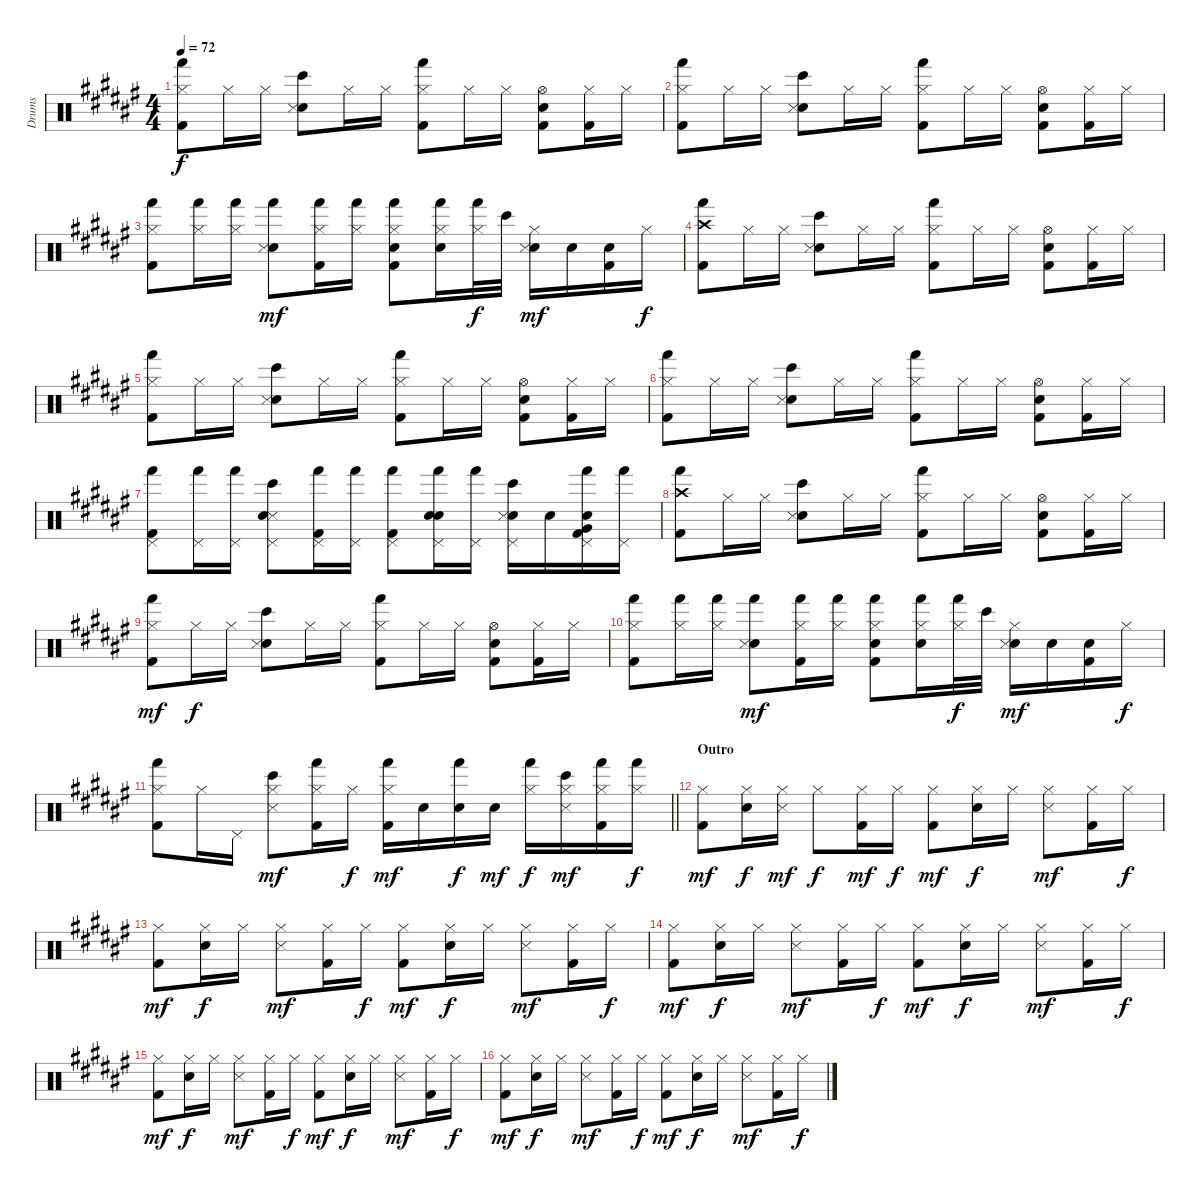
\track ("Drums" "Drums") {instrument percussion}
\staff {score}
\articulation defaults
\ts (4 4)
\tempo 72
\clef neutral
\ks f#
("Hi-Hat (closed)" "Hand (hit)" "Kick (hit) 2").8{dy f} "Hi-Hat (closed)".16 "Hi-Hat (closed)".16 ("Bongo High (hit)" "Snare (hit) 2" "Snare (side stick) 3").8 "Hi-Hat (closed)".16 "Hi-Hat (closed)".16 ("Hi-Hat (closed)" "Hand (hit)" "Kick (hit) 2").8 "Hi-Hat (closed)".16 "Hi-Hat (closed)".16 ("Hi-Hat (open)" "Snare (hit) 2" "Kick (hit) 2").8 ("Hi-Hat (closed)" "Kick (hit) 2").16 "Hi-Hat (closed)".16 |
("Hi-Hat (closed)" "Hand (hit)" "Kick (hit) 2").8 "Hi-Hat (closed)".16 "Hi-Hat (closed)".16 ("Bongo High (hit)" "Snare (hit) 2" "Snare (side stick) 3").8 "Hi-Hat (closed)".16 "Hi-Hat (closed)".16 ("Hi-Hat (closed)" "Hand (hit)" "Kick (hit) 2").8 "Hi-Hat (closed)".16 "Hi-Hat (closed)".16 ("Hi-Hat (open)" "Snare (hit) 2" "Kick (hit) 2").8 ("Hi-Hat (closed)" "Kick (hit) 2").16 "Hi-Hat (closed)".16 |
("Hi-Hat (closed)" "Hand (hit)" "Kick (hit) 2").8 ("Hand (hit)" "Hi-Hat (closed)").16 ("Hand (hit)" "Hi-Hat (closed)").16 ("Hand (hit)" "Snare (hit) 2" "Snare (side stick) 3").8{dy mf} ("Hi-Hat (closed)" "Hand (hit)" "Kick (hit) 2").16 ("Hi-Hat (closed)" "Hand (hit)").16 ("Hand (hit)" "Hi-Hat (closed)" "Snare (hit) 2" "Kick (hit) 2").8 ("Hand (hit)" "Hi-Hat (closed)" "Snare (hit) 2").16 ("Hand (hit)" "Hi-Hat (closed)").32{dy f} "Bongo High (hit)".32 ("Hi-Hat (closed)" "Snare (hit) 2" "Snare (side stick) 3").16{dy mf} "Snare (hit) 2".16 ("Snare (hit) 2" "Kick (hit) 2").16 "Hi-Hat (closed)".16{dy f} |
("Crash high (hit)" "Hand (hit)" "Kick (hit) 2").8 "Hi-Hat (closed)".16 "Hi-Hat (closed)".16 ("Bongo High (hit)" "Snare (hit) 2" "Snare (side stick) 3").8 "Hi-Hat (closed)".16 "Hi-Hat (closed)".16 ("Hi-Hat (closed)" "Hand (hit)" "Kick (hit) 2").8 "Hi-Hat (closed)".16 "Hi-Hat (closed)".16 ("Hi-Hat (open)" "Snare (hit) 2" "Kick (hit) 2").8 ("Hi-Hat (closed)" "Kick (hit) 2").16 "Hi-Hat (closed)".16 |
("Hi-Hat (closed)" "Hand (hit)" "Kick (hit) 2").8 "Hi-Hat (closed)".16 "Hi-Hat (closed)".16 ("Bongo High (hit)" "Snare (hit) 2" "Snare (side stick) 3").8 "Hi-Hat (closed)".16 "Hi-Hat (closed)".16 ("Hi-Hat (closed)" "Hand (hit)" "Kick (hit) 2").8 "Hi-Hat (closed)".16 "Hi-Hat (closed)".16 ("Hi-Hat (open)" "Snare (hit) 2" "Kick (hit) 2").8 ("Hi-Hat (closed)" "Kick (hit) 2").16 "Hi-Hat (closed)".16 |
("Hi-Hat (closed)" "Hand (hit)" "Kick (hit) 2").8 "Hi-Hat (closed)".16 "Hi-Hat (closed)".16 ("Bongo High (hit)" "Snare (hit) 2" "Snare (side stick) 3").8 "Hi-Hat (closed)".16 "Hi-Hat (closed)".16 ("Hi-Hat (closed)" "Hand (hit)" "Kick (hit) 2").8 "Hi-Hat (closed)".16 "Hi-Hat (closed)".16 ("Hi-Hat (open)" "Snare (hit) 2" "Kick (hit) 2").8 ("Hi-Hat (closed)" "Kick (hit) 2").16 "Hi-Hat (closed)".16 |
("Hand (hit)" "Pedal Hi-Hat (hit)" "Kick (hit) 2").8 ("Hand (hit)" "Pedal Hi-Hat (hit)").16 ("Hand (hit)" "Pedal Hi-Hat (hit)").16 ("Snare (side stick) 3" "Pedal Hi-Hat (hit)" "Bongo High (hit)" "Electric Snare (hit)").8 ("Pedal Hi-Hat (hit)" "Kick (hit) 2" "Hand (hit)").16 ("Hand (hit)" "Pedal Hi-Hat (hit)").16 ("Pedal Hi-Hat (hit)" "Kick (hit) 2" "Hand (hit)").8 ("Pedal Hi-Hat (hit)" "Hand (hit)" "Electric Snare (hit)" "Snare (hit) 2").16 ("Hand (hit)" "Pedal Hi-Hat (hit)").16 ("Pedal Hi-Hat (hit)" "Bongo High (hit)" "Electric Snare (hit)" "Snare (side stick) 3").16 "Electric Snare (hit)".16 ("Kick (hit) 2" "Hand (hit)" "Very Low Tom (hit)" "Pedal Hi-Hat (hit)" "Electric Snare (hit)").16 ("Pedal Hi-Hat (hit)" "Hand (hit)").16 |
("Crash high (hit)" "Hand (hit)" "Kick (hit) 2").8 "Hi-Hat (closed)".16 "Hi-Hat (closed)".16 ("Bongo High (hit)" "Snare (hit) 2" "Snare (side stick) 3").8 "Hi-Hat (closed)".16 "Hi-Hat (closed)".16 ("Hi-Hat (closed)" "Hand (hit)" "Kick (hit) 2").8 "Hi-Hat (closed)".16 "Hi-Hat (closed)".16 ("Hi-Hat (open)" "Snare (hit) 2" "Kick (hit) 2").8 ("Hi-Hat (closed)" "Kick (hit) 2").16 "Hi-Hat (closed)".16 |
("Hi-Hat (closed)" "Hand (hit)" "Kick (hit) 2").8{dy mf} "Hi-Hat (closed)".16{dy f} "Hi-Hat (closed)".16 ("Bongo High (hit)" "Snare (hit) 2" "Snare (side stick) 3").8 "Hi-Hat (closed)".16 "Hi-Hat (closed)".16 ("Hi-Hat (closed)" "Hand (hit)" "Kick (hit) 2").8 "Hi-Hat (closed)".16 "Hi-Hat (closed)".16 ("Hi-Hat (open)" "Snare (hit) 2" "Kick (hit) 2").8 ("Hi-Hat (closed)" "Kick (hit) 2").16 "Hi-Hat (closed)".16 |
("Hi-Hat (closed)" "Hand (hit)" "Kick (hit) 2").8 ("Hand (hit)" "Hi-Hat (closed)").16 ("Hand (hit)" "Hi-Hat (closed)").16 ("Hand (hit)" "Snare (hit) 2" "Snare (side stick) 3").8{dy mf} ("Hi-Hat (closed)" "Hand (hit)" "Kick (hit) 2").16 ("Hi-Hat (closed)" "Hand (hit)").16 ("Hand (hit)" "Hi-Hat (closed)" "Snare (hit) 2" "Kick (hit) 2").8 ("Hand (hit)" "Hi-Hat (closed)" "Snare (hit) 2").16 ("Hand (hit)" "Hi-Hat (closed)").32{dy f} "Bongo High (hit)".32 ("Hi-Hat (closed)" "Snare (hit) 2" "Snare (side stick) 3").16{dy mf} "Snare (hit) 2".16 ("Snare (hit) 2" "Kick (hit) 2").16 "Hi-Hat (closed)".16{dy f} |
\barLineRight lightlight
("Hi-Hat (closed)" "Hand (hit)" "Kick (hit) 2").8 "Hi-Hat (closed)".16 "Pedal Hi-Hat (hit)".16 ("Bongo High (hit)" "Hi-Hat (closed)" "Snare (side stick) 3").8{dy mf} ("Hand (hit)" "Hi-Hat (closed)" "Kick (hit) 2").16 "Hi-Hat (closed)".16{dy f} ("Hand (hit)" "Hi-Hat (closed)" "Kick (hit) 2").16{dy mf} "Snare (hit) 2".16 ("Hand (hit)" "Snare (hit) 2").16{dy f} "Snare (hit) 2".16{dy mf} ("Hand (hit)" "Hi-Hat (closed)").16{dy f} ("Bongo High (hit)" "Hi-Hat (closed)" "Snare (side stick) 3").16{dy mf} ("Hand (hit)" "Hi-Hat (closed)" "Kick (hit) 2").16 ("Hand (hit)" "Hi-Hat (closed)").16{dy f} |
\section ("" "Outro")
("Hi-Hat (closed)" "Kick (hit) 2").8{dy mf} ("Hi-Hat (closed)" "Snare (hit) 2").16{dy f} ("Hi-Hat (closed)" "Snare (side stick) 3").16{dy mf} "Hi-Hat (closed)".8{dy f} ("Hi-Hat (closed)" "Kick (hit) 2").16{dy mf} "Hi-Hat (closed)".16{dy f} ("Hi-Hat (closed)" "Kick (hit) 2").8{dy mf} ("Hi-Hat (closed)" "Snare (hit) 2").16{dy f} "Hi-Hat (closed)".16 ("Hi-Hat (closed)" "Snare (side stick) 3").8{dy mf} ("Hi-Hat (closed)" "Kick (hit) 2").16 "Hi-Hat (closed)".16{dy f} |
("Hi-Hat (closed)" "Kick (hit) 2").8{dy mf} ("Hi-Hat (closed)" "Snare (hit) 2").16{dy f} "Hi-Hat (closed)".16 ("Hi-Hat (closed)" "Snare (side stick) 3").8{dy mf} ("Hi-Hat (closed)" "Kick (hit) 2").16 "Hi-Hat (closed)".16{dy f} ("Hi-Hat (closed)" "Kick (hit) 2").8{dy mf} ("Hi-Hat (closed)" "Snare (hit) 2").16{dy f} "Hi-Hat (closed)".16 ("Hi-Hat (closed)" "Snare (side stick) 3").8{dy mf} ("Hi-Hat (closed)" "Kick (hit) 2").16 "Hi-Hat (closed)".16{dy f} |
("Hi-Hat (closed)" "Kick (hit) 2").8{dy mf} ("Hi-Hat (closed)" "Snare (hit) 2").16{dy f} "Hi-Hat (closed)".16 ("Hi-Hat (closed)" "Snare (side stick) 3").8{dy mf} ("Hi-Hat (closed)" "Kick (hit) 2").16 "Hi-Hat (closed)".16{dy f} ("Hi-Hat (closed)" "Kick (hit) 2").8{dy mf} ("Hi-Hat (closed)" "Snare (hit) 2").16{dy f} "Hi-Hat (closed)".16 ("Hi-Hat (closed)" "Snare (side stick) 3").8{dy mf} ("Hi-Hat (closed)" "Kick (hit) 2").16 "Hi-Hat (closed)".16{dy f} |
("Hi-Hat (closed)" "Kick (hit) 2").8{dy mf} ("Hi-Hat (closed)" "Snare (hit) 2").16{dy f} "Hi-Hat (closed)".16 ("Hi-Hat (closed)" "Snare (side stick) 3").8{dy mf} ("Hi-Hat (closed)" "Kick (hit) 2").16 "Hi-Hat (closed)".16{dy f} ("Hi-Hat (closed)" "Kick (hit) 2").8{dy mf} ("Hi-Hat (closed)" "Snare (hit) 2").16{dy f} "Hi-Hat (closed)".16 ("Hi-Hat (closed)" "Snare (side stick) 3").8{dy mf} ("Hi-Hat (closed)" "Kick (hit) 2").16 "Hi-Hat (closed)".16{dy f} |
("Hi-Hat (closed)" "Kick (hit) 2").8{dy mf} ("Hi-Hat (closed)" "Snare (hit) 2").16{dy f} "Hi-Hat (closed)".16 ("Hi-Hat (closed)" "Snare (side stick) 3").8{dy mf} ("Hi-Hat (closed)" "Kick (hit) 2").16 "Hi-Hat (closed)".16{dy f} ("Hi-Hat (closed)" "Kick (hit) 2").8{dy mf} ("Hi-Hat (closed)" "Snare (hit) 2").16{dy f} "Hi-Hat (closed)".16 ("Hi-Hat (closed)" "Snare (side stick) 3").8{dy mf} ("Hi-Hat (closed)" "Kick (hit) 2").16 "Hi-Hat (closed)".16{dy f}
